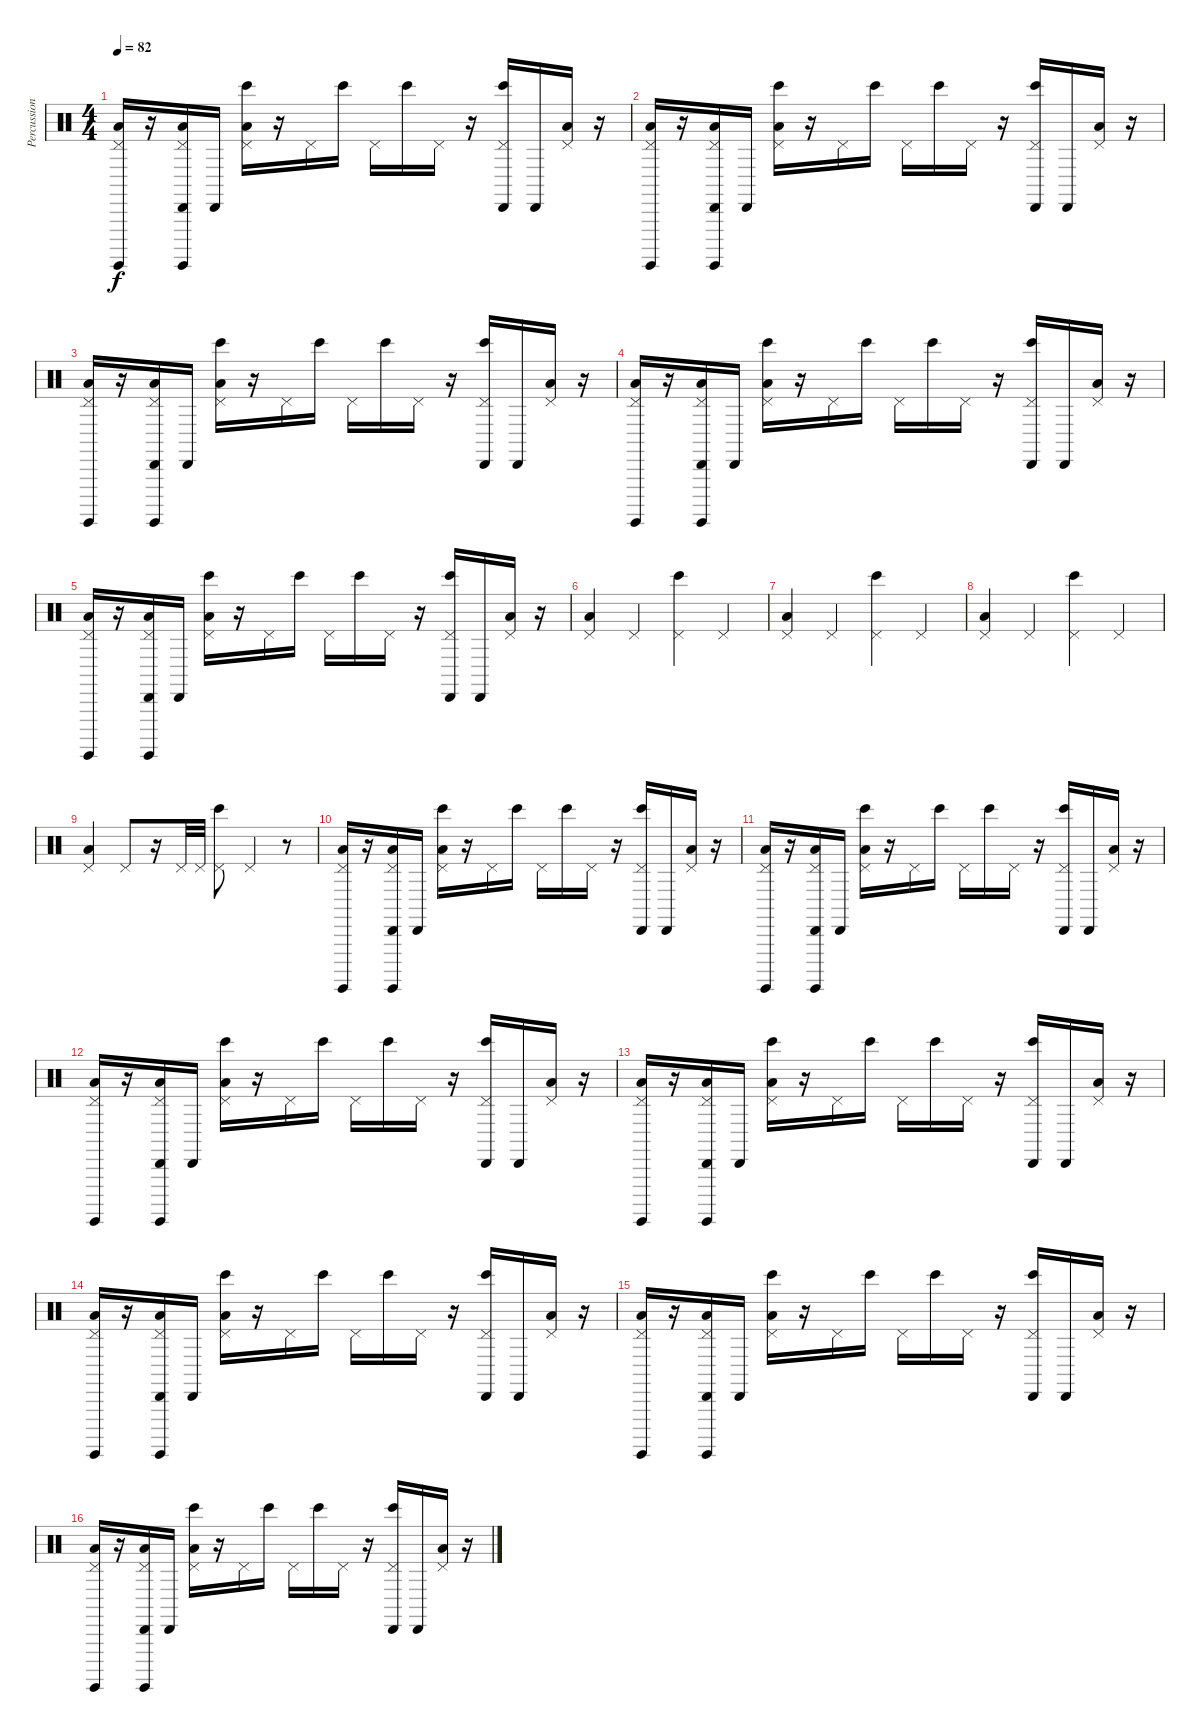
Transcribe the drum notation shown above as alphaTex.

\track ("Percussions" "Percussion") {instrument percussion}
\staff {score}
\articulation defaults
\ts (4 4)
\tempo 82
\clef neutral
\ks c
("Pedal Hi-Hat (hit)" "Low Floor Tom (hit)" "Surdo (hit)").16{dy f} r.16 ("Pedal Hi-Hat (hit)" "Cabasa (hit)" "Low Floor Tom (hit)" "Surdo (hit)").16 "Cabasa (hit)".16 ("Pedal Hi-Hat (hit)" "Low Floor Tom (hit)" "Bongo High (hit)").16 r.16 "Pedal Hi-Hat (hit)".16 "Bongo High (hit)".16 "Pedal Hi-Hat (hit)".16 "Bongo High (hit)".16 "Pedal Hi-Hat (hit)".16 r.16 ("Pedal Hi-Hat (hit)" "Cabasa (hit)" "Bongo High (hit)").16 "Cabasa (hit)".16 ("Pedal Hi-Hat (hit)" "Low Floor Tom (hit)").16 r.16 |
("Pedal Hi-Hat (hit)" "Low Floor Tom (hit)" "Surdo (hit)").16 r.16 ("Pedal Hi-Hat (hit)" "Cabasa (hit)" "Low Floor Tom (hit)" "Surdo (hit)").16 "Cabasa (hit)".16 ("Pedal Hi-Hat (hit)" "Low Floor Tom (hit)" "Bongo High (hit)").16 r.16 "Pedal Hi-Hat (hit)".16 "Bongo High (hit)".16 "Pedal Hi-Hat (hit)".16 "Bongo High (hit)".16 "Pedal Hi-Hat (hit)".16 r.16 ("Pedal Hi-Hat (hit)" "Cabasa (hit)" "Bongo High (hit)").16 "Cabasa (hit)".16 ("Pedal Hi-Hat (hit)" "Low Floor Tom (hit)").16 r.16 |
("Pedal Hi-Hat (hit)" "Low Floor Tom (hit)" "Surdo (hit)").16 r.16 ("Pedal Hi-Hat (hit)" "Cabasa (hit)" "Low Floor Tom (hit)" "Surdo (hit)").16 "Cabasa (hit)".16 ("Pedal Hi-Hat (hit)" "Low Floor Tom (hit)" "Bongo High (hit)").16 r.16 "Pedal Hi-Hat (hit)".16 "Bongo High (hit)".16 "Pedal Hi-Hat (hit)".16 "Bongo High (hit)".16 "Pedal Hi-Hat (hit)".16 r.16 ("Pedal Hi-Hat (hit)" "Cabasa (hit)" "Bongo High (hit)").16 "Cabasa (hit)".16 ("Pedal Hi-Hat (hit)" "Low Floor Tom (hit)").16 r.16 |
("Pedal Hi-Hat (hit)" "Low Floor Tom (hit)" "Surdo (hit)").16 r.16 ("Pedal Hi-Hat (hit)" "Cabasa (hit)" "Low Floor Tom (hit)" "Surdo (hit)").16 "Cabasa (hit)".16 ("Pedal Hi-Hat (hit)" "Low Floor Tom (hit)" "Bongo High (hit)").16 r.16 "Pedal Hi-Hat (hit)".16 "Bongo High (hit)".16 "Pedal Hi-Hat (hit)".16 "Bongo High (hit)".16 "Pedal Hi-Hat (hit)".16 r.16 ("Pedal Hi-Hat (hit)" "Cabasa (hit)" "Bongo High (hit)").16 "Cabasa (hit)".16 ("Pedal Hi-Hat (hit)" "Low Floor Tom (hit)").16 r.16 |
("Pedal Hi-Hat (hit)" "Low Floor Tom (hit)" "Surdo (hit)").16 r.16 ("Pedal Hi-Hat (hit)" "Cabasa (hit)" "Low Floor Tom (hit)" "Surdo (hit)").16 "Cabasa (hit)".16 ("Pedal Hi-Hat (hit)" "Low Floor Tom (hit)" "Bongo High (hit)").16 r.16 "Pedal Hi-Hat (hit)".16 "Bongo High (hit)".16 "Pedal Hi-Hat (hit)".16 "Bongo High (hit)".16 "Pedal Hi-Hat (hit)".16 r.16 ("Pedal Hi-Hat (hit)" "Cabasa (hit)" "Bongo High (hit)").16 "Cabasa (hit)".16 ("Pedal Hi-Hat (hit)" "Low Floor Tom (hit)").16 r.16 |
("Pedal Hi-Hat (hit)" "Low Floor Tom (hit)").4 "Pedal Hi-Hat (hit)".4 ("Pedal Hi-Hat (hit)" "Bongo High (hit)").4 "Pedal Hi-Hat (hit)".4 |
("Pedal Hi-Hat (hit)" "Low Floor Tom (hit)").4 "Pedal Hi-Hat (hit)".4 ("Pedal Hi-Hat (hit)" "Bongo High (hit)").4 "Pedal Hi-Hat (hit)".4 |
("Pedal Hi-Hat (hit)" "Low Floor Tom (hit)").4 "Pedal Hi-Hat (hit)".4 ("Pedal Hi-Hat (hit)" "Bongo High (hit)").4 "Pedal Hi-Hat (hit)".4 |
("Pedal Hi-Hat (hit)" "Low Floor Tom (hit)").4 "Pedal Hi-Hat (hit)".8 r.16 "Pedal Hi-Hat (hit)".32 "Pedal Hi-Hat (hit)".32 ("Pedal Hi-Hat (hit)" "Bongo High (hit)").8 "Pedal Hi-Hat (hit)".4 r.8 |
("Pedal Hi-Hat (hit)" "Low Floor Tom (hit)" "Surdo (hit)").16 r.16 ("Pedal Hi-Hat (hit)" "Cabasa (hit)" "Low Floor Tom (hit)" "Surdo (hit)").16 "Cabasa (hit)".16 ("Pedal Hi-Hat (hit)" "Low Floor Tom (hit)" "Bongo High (hit)").16 r.16 "Pedal Hi-Hat (hit)".16 "Bongo High (hit)".16 "Pedal Hi-Hat (hit)".16 "Bongo High (hit)".16 "Pedal Hi-Hat (hit)".16 r.16 ("Pedal Hi-Hat (hit)" "Cabasa (hit)" "Bongo High (hit)").16 "Cabasa (hit)".16 ("Pedal Hi-Hat (hit)" "Low Floor Tom (hit)").16 r.16 |
("Pedal Hi-Hat (hit)" "Low Floor Tom (hit)" "Surdo (hit)").16 r.16 ("Pedal Hi-Hat (hit)" "Cabasa (hit)" "Low Floor Tom (hit)" "Surdo (hit)").16 "Cabasa (hit)".16 ("Pedal Hi-Hat (hit)" "Low Floor Tom (hit)" "Bongo High (hit)").16 r.16 "Pedal Hi-Hat (hit)".16 "Bongo High (hit)".16 "Pedal Hi-Hat (hit)".16 "Bongo High (hit)".16 "Pedal Hi-Hat (hit)".16 r.16 ("Pedal Hi-Hat (hit)" "Cabasa (hit)" "Bongo High (hit)").16 "Cabasa (hit)".16 ("Pedal Hi-Hat (hit)" "Low Floor Tom (hit)").16 r.16 |
("Pedal Hi-Hat (hit)" "Low Floor Tom (hit)" "Surdo (hit)").16 r.16 ("Pedal Hi-Hat (hit)" "Cabasa (hit)" "Low Floor Tom (hit)" "Surdo (hit)").16 "Cabasa (hit)".16 ("Pedal Hi-Hat (hit)" "Low Floor Tom (hit)" "Bongo High (hit)").16 r.16 "Pedal Hi-Hat (hit)".16 "Bongo High (hit)".16 "Pedal Hi-Hat (hit)".16 "Bongo High (hit)".16 "Pedal Hi-Hat (hit)".16 r.16 ("Pedal Hi-Hat (hit)" "Cabasa (hit)" "Bongo High (hit)").16 "Cabasa (hit)".16 ("Pedal Hi-Hat (hit)" "Low Floor Tom (hit)").16 r.16 |
("Pedal Hi-Hat (hit)" "Low Floor Tom (hit)" "Surdo (hit)").16 r.16 ("Pedal Hi-Hat (hit)" "Cabasa (hit)" "Low Floor Tom (hit)" "Surdo (hit)").16 "Cabasa (hit)".16 ("Pedal Hi-Hat (hit)" "Low Floor Tom (hit)" "Bongo High (hit)").16 r.16 "Pedal Hi-Hat (hit)".16 "Bongo High (hit)".16 "Pedal Hi-Hat (hit)".16 "Bongo High (hit)".16 "Pedal Hi-Hat (hit)".16 r.16 ("Pedal Hi-Hat (hit)" "Cabasa (hit)" "Bongo High (hit)").16 "Cabasa (hit)".16 ("Pedal Hi-Hat (hit)" "Low Floor Tom (hit)").16 r.16 |
("Pedal Hi-Hat (hit)" "Low Floor Tom (hit)" "Surdo (hit)").16 r.16 ("Pedal Hi-Hat (hit)" "Cabasa (hit)" "Low Floor Tom (hit)" "Surdo (hit)").16 "Cabasa (hit)".16 ("Pedal Hi-Hat (hit)" "Low Floor Tom (hit)" "Bongo High (hit)").16 r.16 "Pedal Hi-Hat (hit)".16 "Bongo High (hit)".16 "Pedal Hi-Hat (hit)".16 "Bongo High (hit)".16 "Pedal Hi-Hat (hit)".16 r.16 ("Pedal Hi-Hat (hit)" "Cabasa (hit)" "Bongo High (hit)").16 "Cabasa (hit)".16 ("Pedal Hi-Hat (hit)" "Low Floor Tom (hit)").16 r.16 |
("Pedal Hi-Hat (hit)" "Low Floor Tom (hit)" "Surdo (hit)").16 r.16 ("Pedal Hi-Hat (hit)" "Cabasa (hit)" "Low Floor Tom (hit)" "Surdo (hit)").16 "Cabasa (hit)".16 ("Pedal Hi-Hat (hit)" "Low Floor Tom (hit)" "Bongo High (hit)").16 r.16 "Pedal Hi-Hat (hit)".16 "Bongo High (hit)".16 "Pedal Hi-Hat (hit)".16 "Bongo High (hit)".16 "Pedal Hi-Hat (hit)".16 r.16 ("Pedal Hi-Hat (hit)" "Cabasa (hit)" "Bongo High (hit)").16 "Cabasa (hit)".16 ("Pedal Hi-Hat (hit)" "Low Floor Tom (hit)").16 r.16 |
("Pedal Hi-Hat (hit)" "Low Floor Tom (hit)" "Surdo (hit)").16 r.16 ("Pedal Hi-Hat (hit)" "Cabasa (hit)" "Low Floor Tom (hit)" "Surdo (hit)").16 "Cabasa (hit)".16 ("Pedal Hi-Hat (hit)" "Low Floor Tom (hit)" "Bongo High (hit)").16 r.16 "Pedal Hi-Hat (hit)".16 "Bongo High (hit)".16 "Pedal Hi-Hat (hit)".16 "Bongo High (hit)".16 "Pedal Hi-Hat (hit)".16 r.16 ("Pedal Hi-Hat (hit)" "Cabasa (hit)" "Bongo High (hit)").16 "Cabasa (hit)".16 ("Pedal Hi-Hat (hit)" "Low Floor Tom (hit)").16 r.16
